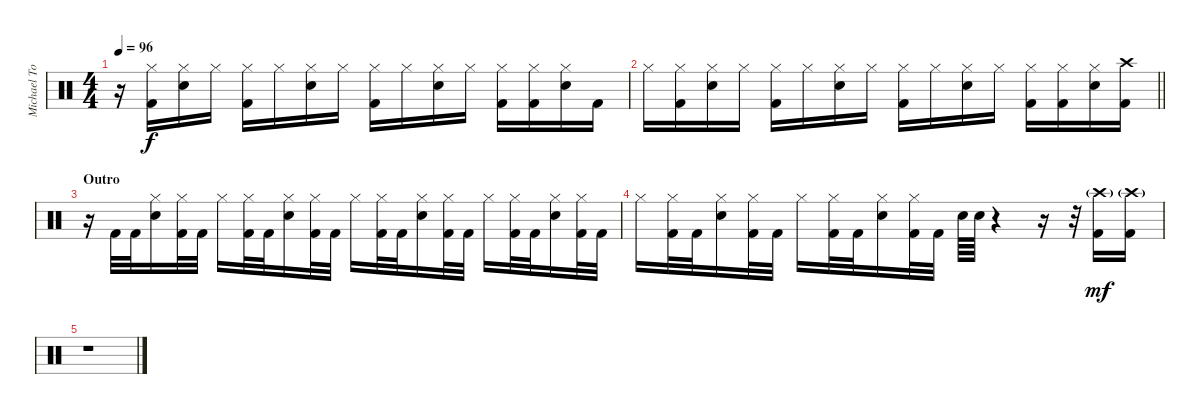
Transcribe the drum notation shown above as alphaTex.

\track ("Michael Tomas (Drums)" "Michael To") {instrument percussion}
\staff {score}
\articulation defaults
\ts (4 4)
\tempo 96
\clef neutral
\ks c
r.16{dy f} ("Hi-Hat (closed)" "Kick (hit) 2").16 ("Hi-Hat (closed)" "Snare (hit) 2").16 "Hi-Hat (closed)".16 ("Hi-Hat (closed)" "Kick (hit) 2").16 "Hi-Hat (closed)".16 ("Hi-Hat (closed)" "Snare (hit) 2").16 "Hi-Hat (closed)".16 ("Hi-Hat (closed)" "Kick (hit) 2").16 "Hi-Hat (closed)".16 ("Hi-Hat (closed)" "Snare (hit) 2").16 "Hi-Hat (closed)".16 ("Hi-Hat (closed)" "Kick (hit) 2").16 ("Hi-Hat (closed)" "Kick (hit) 2").16 ("Hi-Hat (closed)" "Snare (hit) 2").16 "Kick (hit) 2".16 |
\barLineRight lightlight "Hi-Hat (closed)".16
("Hi-Hat (closed)" "Kick (hit) 2").16 ("Hi-Hat (closed)" "Snare (hit) 2").16 "Hi-Hat (closed)".16 ("Hi-Hat (closed)" "Kick (hit) 2").16 "Hi-Hat (closed)".16 ("Hi-Hat (closed)" "Snare (hit) 2").16 "Hi-Hat (closed)".16 ("Hi-Hat (closed)" "Kick (hit) 2").16 "Hi-Hat (closed)".16 ("Hi-Hat (closed)" "Snare (hit) 2").16 "Hi-Hat (closed)".16 ("Hi-Hat (closed)" "Kick (hit) 2").16 ("Hi-Hat (closed)" "Kick (hit) 2").16 ("Hi-Hat (closed)" "Snare (hit) 2").16 ("Crash high (hit)" "Kick (hit) 2").16 |
\section ("" "Outro")
r.16 "Kick (hit) 2".32 "Kick (hit) 2".32 ("Hi-Hat (closed)" "Snare (hit) 2").16 ("Hi-Hat (closed)" "Kick (hit) 2").32 "Kick (hit) 2".32 "Hi-Hat (closed)".16 ("Hi-Hat (closed)" "Kick (hit) 2").32 "Kick (hit) 2".32 ("Hi-Hat (closed)" "Snare (hit) 2").16 ("Hi-Hat (closed)" "Kick (hit) 2").32 "Kick (hit) 2".32 "Hi-Hat (closed)".16 ("Hi-Hat (closed)" "Kick (hit) 2").32 "Kick (hit) 2".32 ("Hi-Hat (closed)" "Snare (hit) 2").16 ("Hi-Hat (closed)" "Kick (hit) 2").32 "Kick (hit) 2".32 "Hi-Hat (closed)".16 ("Hi-Hat (closed)" "Kick (hit) 2").32 "Kick (hit) 2".32 ("Hi-Hat (closed)" "Snare (hit) 2").16 ("Hi-Hat (closed)" "Kick (hit) 2").32 "Kick (hit) 2".32 |
"Hi-Hat (closed)".16 ("Hi-Hat (closed)" "Kick (hit) 2").32 "Kick (hit) 2".32 ("Hi-Hat (closed)" "Snare (hit) 2").16 ("Hi-Hat (closed)" "Kick (hit) 2").32 "Kick (hit) 2".32 "Hi-Hat (closed)".16 ("Hi-Hat (closed)" "Kick (hit) 2").32 "Kick (hit) 2".32 ("Hi-Hat (closed)" "Snare (hit) 2").16 ("Hi-Hat (closed)" "Kick (hit) 2").32 "Kick (hit) 2".32 "Snare (hit) 2".64 "Snare (hit) 2".64 r.4 r.16 r.32 ("Crash high (hit)"{g} "Kick (hit) 2").16{dy mf} ("Crash high (hit)"{g} "Kick (hit) 2").16 |
r.1
